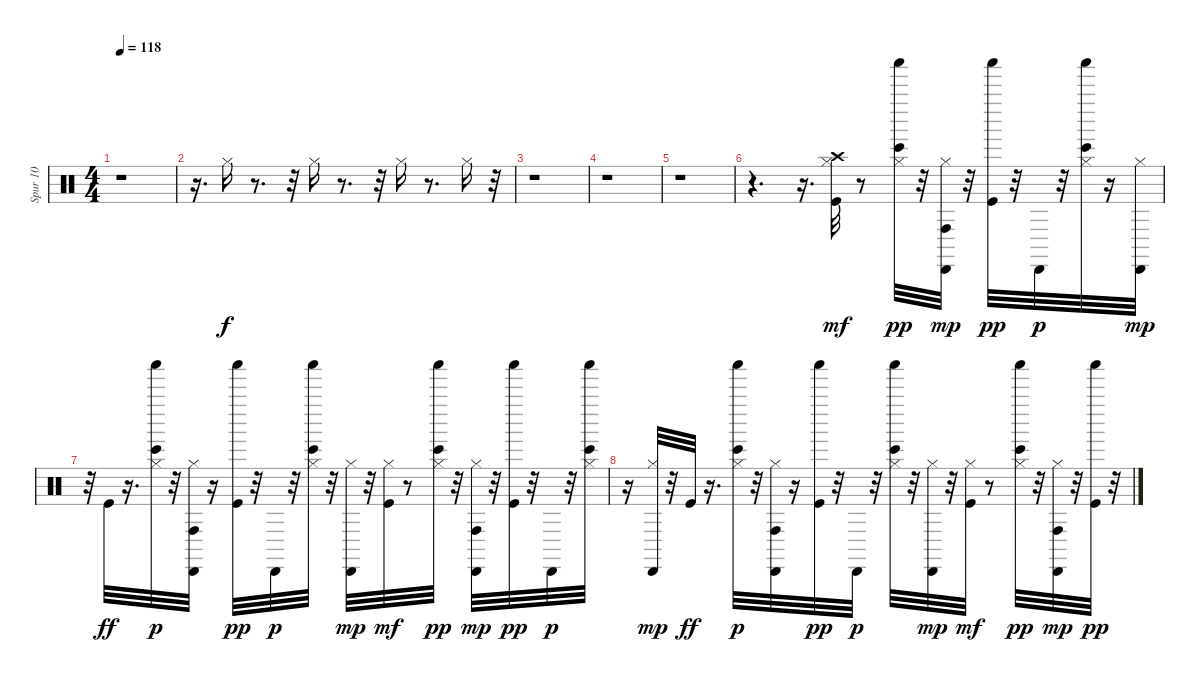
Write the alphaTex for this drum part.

\track ("Spur 10" "Spur 10") {instrument percussion}
\staff {score}
\articulation defaults
\ts (4 4)
\tempo 118
\clef neutral
\ks c
r.1{dy f} |
r.16{d} "Hi-Hat (closed)".16 r.8{d} r.32 "Hi-Hat (closed)".16 r.8{d} r.32 "Hi-Hat (closed)".16 r.8{d} "Hi-Hat (closed)".16 r.32 |
r.1 |
r.1 |
r.1 |
r.4{d} r.16{d} ("Kick (hit)" "Hi-Hat (closed)" "Crash high (hit)").32{dy mf} r.8 ("Hi-Hat (closed)" "Bongo High (hit)" "Shaker (hit)").32{dy pp} r.32 ("Hi-Hat (closed)" "Conga high (hit)" "Cabasa (hit)").32{dy mp} r.32 ("Kick (hit)" "Shaker (hit)").32{dy pp} r.32 "Cabasa (hit)".32{dy p} r.32 ("Hi-Hat (closed)" "Bongo High (hit)" "Shaker (hit)").32 r.16 ("Hi-Hat (closed)" "Cabasa (hit)").32{dy mp} |
r.32 "Kick (hit)".32{dy ff} r.16{d} ("Hi-Hat (closed)" "Bongo High (hit)" "Shaker (hit)").32{dy p} r.32 ("Hi-Hat (closed)" "Conga high (hit)" "Cabasa (hit)").32 r.16 ("Kick (hit)" "Shaker (hit)").32{dy pp} r.32 "Cabasa (hit)".32{dy p} r.32 ("Hi-Hat (closed)" "Bongo High (hit)" "Shaker (hit)").32 r.32 ("Hi-Hat (closed)" "Cabasa (hit)").32{dy mp} r.32 ("Kick (hit)" "Hi-Hat (closed)").32{dy mf} r.8 ("Hi-Hat (closed)" "Bongo High (hit)" "Shaker (hit)").32{dy pp} r.32 ("Hi-Hat (closed)" "Conga high (hit)" "Cabasa (hit)").32{dy mp} r.32 ("Kick (hit)" "Shaker (hit)").32{dy pp} r.32 "Cabasa (hit)".32{dy p} r.32 ("Hi-Hat (closed)" "Bongo High (hit)" "Shaker (hit)").32 |
r.16 ("Hi-Hat (closed)" "Cabasa (hit)").32{dy mp} r.32 "Kick (hit)".32{dy ff} r.16{d} ("Hi-Hat (closed)" "Bongo High (hit)" "Shaker (hit)").32{dy p} r.32 ("Hi-Hat (closed)" "Conga high (hit)" "Cabasa (hit)").32 r.16 ("Kick (hit)" "Shaker (hit)").32{dy pp} r.32 "Cabasa (hit)".32{dy p} r.32 ("Hi-Hat (closed)" "Bongo High (hit)" "Shaker (hit)").32 r.32 ("Hi-Hat (closed)" "Cabasa (hit)").32{dy mp} r.32 ("Kick (hit)" "Hi-Hat (closed)").32{dy mf} r.8 ("Hi-Hat (closed)" "Bongo High (hit)" "Shaker (hit)").32{dy pp} r.32 ("Hi-Hat (closed)" "Conga high (hit)" "Cabasa (hit)").32{dy mp} r.32 ("Kick (hit)" "Shaker (hit)").32{dy pp} r.32
